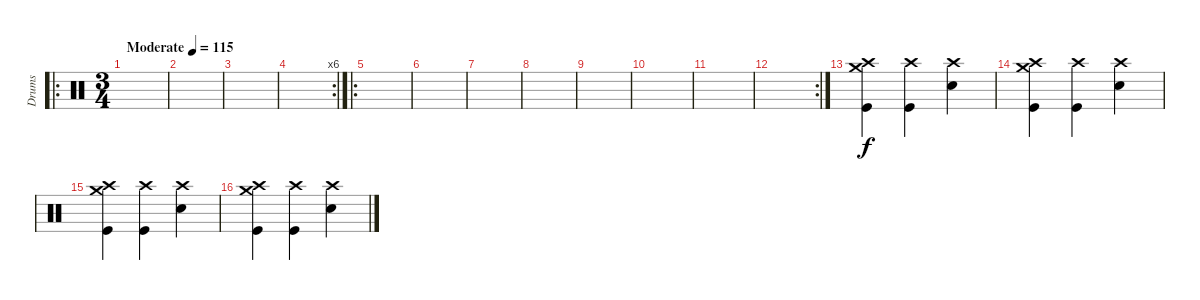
\track ("Drums" "Drums") {instrument percussion}
\staff {score}
\articulation defaults
\ro
\ts (3 4)
\tempo (115 "Moderate")
\clef neutral
\ks c
|
|
|
\rc 6
|
\ro
|
|
|
|
|
|
|
\rc 2
|
("Crash high (hit)" "Crash medium (hit)" "Kick (hit)").4 ("Crash high (hit)" "Kick (hit)").4 ("Crash high (hit)" "Snare (hit) 2").4 |
("Crash high (hit)" "Crash medium (hit)" "Kick (hit)").4 ("Crash high (hit)" "Kick (hit)").4 ("Crash high (hit)" "Snare (hit) 2").4 |
("Crash high (hit)" "Crash medium (hit)" "Kick (hit)").4 ("Crash high (hit)" "Kick (hit)").4 ("Crash high (hit)" "Snare (hit) 2").4 |
("Crash high (hit)" "Crash medium (hit)" "Kick (hit)").4 ("Crash high (hit)" "Kick (hit)").4 ("Crash high (hit)" "Snare (hit) 2").4
